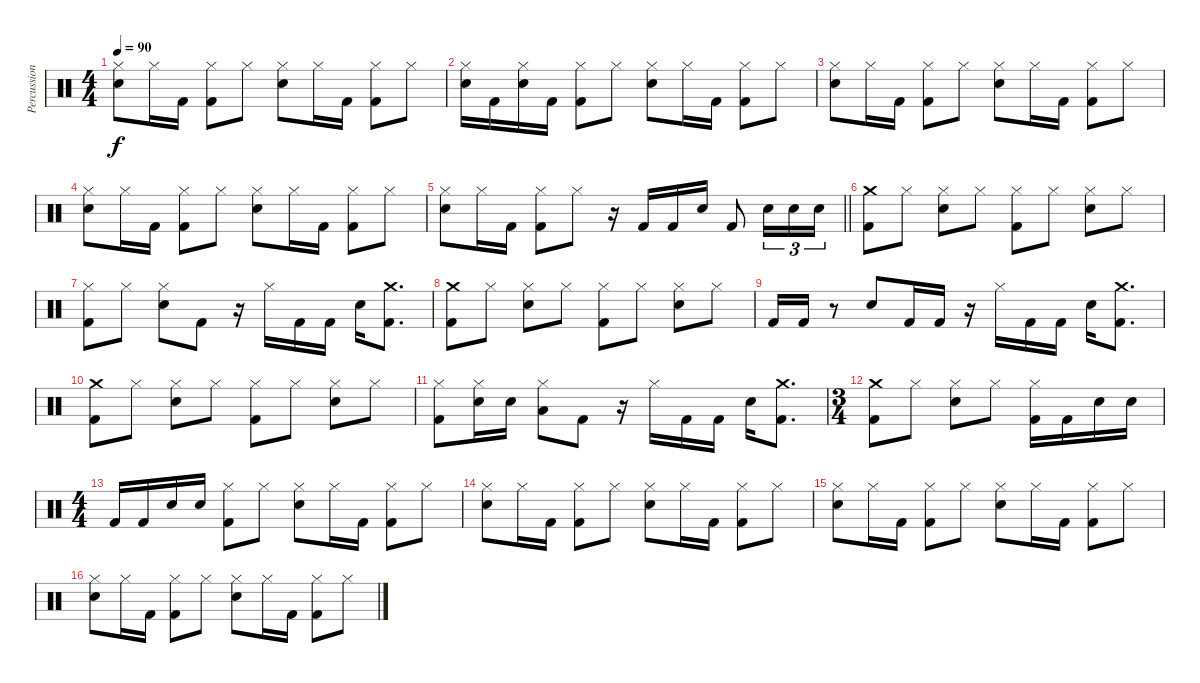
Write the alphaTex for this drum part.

\track ("Percussion" "Percussion") {instrument percussion}
\staff {score}
\articulation defaults
\ts (4 4)
\tempo 90
\clef neutral
\ks c
("Hi-Hat (closed)" "Snare (hit) 2").8{dy f} "Hi-Hat (closed)".16 "Kick (hit) 2".16 ("Hi-Hat (closed)" "Kick (hit) 2").8 "Hi-Hat (closed)".8 ("Hi-Hat (closed)" "Snare (hit) 2").8 "Hi-Hat (closed)".16 "Kick (hit) 2".16 ("Hi-Hat (closed)" "Kick (hit) 2").8 "Hi-Hat (closed)".8 |
("Hi-Hat (closed)" "Snare (hit) 2").16 "Kick (hit) 2".16 ("Hi-Hat (closed)" "Snare (hit) 2").16 "Kick (hit) 2".16 ("Hi-Hat (closed)" "Kick (hit) 2").8 "Hi-Hat (closed)".8 ("Hi-Hat (closed)" "Snare (hit) 2").8 "Hi-Hat (closed)".16 "Kick (hit) 2".16 ("Hi-Hat (closed)" "Kick (hit) 2").8 "Hi-Hat (closed)".8 |
("Hi-Hat (closed)" "Snare (hit) 2").8 "Hi-Hat (closed)".16 "Kick (hit) 2".16 ("Hi-Hat (closed)" "Kick (hit) 2").8 "Hi-Hat (closed)".8 ("Hi-Hat (closed)" "Snare (hit) 2").8 "Hi-Hat (closed)".16 "Kick (hit) 2".16 ("Hi-Hat (closed)" "Kick (hit) 2").8 "Hi-Hat (closed)".8 |
("Hi-Hat (closed)" "Snare (hit) 2").8 "Hi-Hat (closed)".16 "Kick (hit) 2".16 ("Hi-Hat (closed)" "Kick (hit) 2").8 "Hi-Hat (closed)".8 ("Hi-Hat (closed)" "Snare (hit) 2").8 "Hi-Hat (closed)".16 "Kick (hit) 2".16 ("Hi-Hat (closed)" "Kick (hit) 2").8 "Hi-Hat (closed)".8 |
\barLineRight lightlight
("Hi-Hat (closed)" "Snare (hit) 2").8 "Hi-Hat (closed)".16 "Kick (hit) 2".16 ("Hi-Hat (closed)" "Kick (hit) 2").8 "Hi-Hat (closed)".8 r.16 "Kick (hit) 2".16 "Kick (hit) 2".16 "Snare (hit) 2".16 "Kick (hit) 2".8 "Snare (hit) 2".16{tu (3 2)} "Snare (hit) 2".16{tu (3 2)} "Snare (hit) 2".16{tu (3 2)} |
("Crash medium (hit)" "Kick (hit) 2").8 "Hi-Hat (closed)".8 ("Hi-Hat (closed)" "Snare (hit) 2").8 "Hi-Hat (closed)".8 ("Hi-Hat (closed)" "Kick (hit) 2").8 "Hi-Hat (closed)".8 ("Hi-Hat (closed)" "Snare (hit) 2").8 "Hi-Hat (closed)".8 |
("Hi-Hat (closed)" "Kick (hit) 2").8 "Hi-Hat (closed)".8 ("Hi-Hat (closed)" "Snare (hit) 2").8 "Kick (hit) 2".8 r.16 "Hi-Hat (closed)".16 "Kick (hit) 2".16 "Kick (hit) 2".16 "Snare (hit) 2".16 ("Crash medium (hit)" "Kick (hit) 2").8{d} |
("Crash medium (hit)" "Kick (hit) 2").8 "Hi-Hat (closed)".8 ("Hi-Hat (closed)" "Snare (hit) 2").8 "Hi-Hat (closed)".8 ("Hi-Hat (closed)" "Kick (hit) 2").8 "Hi-Hat (closed)".8 ("Hi-Hat (closed)" "Snare (hit) 2").8 "Hi-Hat (closed)".8 |
"Kick (hit) 2".16 "Kick (hit) 2".16 r.8 "Snare (hit) 2".8 "Kick (hit) 2".16 "Kick (hit) 2".16 r.16 "Hi-Hat (closed)".16 "Kick (hit) 2".16 "Kick (hit) 2".16 "Snare (hit) 2".16 ("Crash medium (hit)" "Kick (hit) 2").8{d} |
("Crash medium (hit)" "Kick (hit) 2").8 "Hi-Hat (closed)".8 ("Hi-Hat (closed)" "Snare (hit) 2").8 "Hi-Hat (closed)".8 ("Hi-Hat (closed)" "Kick (hit) 2").8 "Hi-Hat (closed)".8 ("Hi-Hat (closed)" "Snare (hit) 2").8 "Hi-Hat (closed)".8 |
("Hi-Hat (closed)" "Kick (hit) 2").8 ("Hi-Hat (closed)" "Snare (hit) 2").16 "Snare (hit) 2".16 ("Hi-Hat (closed)" "Low Floor Tom (hit)").8 "Kick (hit) 2".8 r.16 "Hi-Hat (closed)".16 "Kick (hit) 2".16 "Kick (hit) 2".16 "Snare (hit) 2".16 ("Crash medium (hit)" "Kick (hit) 2").8{d} |
\ts (3 4)
("Crash medium (hit)" "Kick (hit) 2").8 "Hi-Hat (closed)".8 ("Hi-Hat (closed)" "Snare (hit) 2").8 "Hi-Hat (closed)".8 ("Hi-Hat (closed)" "Kick (hit) 2").16 "Kick (hit) 2".16 "Snare (hit) 2".16 "Snare (hit) 2".16 |
\ts (4 4)
"Kick (hit) 2".16 "Kick (hit) 2".16 "Snare (hit) 2".16 "Snare (hit) 2".16 ("Hi-Hat (closed)" "Kick (hit) 2").8 "Hi-Hat (closed)".8 ("Hi-Hat (closed)" "Snare (hit) 2").8 "Hi-Hat (closed)".16 "Kick (hit) 2".16 ("Hi-Hat (closed)" "Kick (hit) 2").8 "Hi-Hat (closed)".8 |
("Hi-Hat (closed)" "Snare (hit) 2").8 "Hi-Hat (closed)".16 "Kick (hit) 2".16 ("Hi-Hat (closed)" "Kick (hit) 2").8 "Hi-Hat (closed)".8 ("Hi-Hat (closed)" "Snare (hit) 2").8 "Hi-Hat (closed)".16 "Kick (hit) 2".16 ("Hi-Hat (closed)" "Kick (hit) 2").8 "Hi-Hat (closed)".8 |
("Hi-Hat (closed)" "Snare (hit) 2").8 "Hi-Hat (closed)".16 "Kick (hit) 2".16 ("Hi-Hat (closed)" "Kick (hit) 2").8 "Hi-Hat (closed)".8 ("Hi-Hat (closed)" "Snare (hit) 2").8 "Hi-Hat (closed)".16 "Kick (hit) 2".16 ("Hi-Hat (closed)" "Kick (hit) 2").8 "Hi-Hat (closed)".8 |
("Hi-Hat (closed)" "Snare (hit) 2").8 "Hi-Hat (closed)".16 "Kick (hit) 2".16 ("Hi-Hat (closed)" "Kick (hit) 2").8 "Hi-Hat (closed)".8 ("Hi-Hat (closed)" "Snare (hit) 2").8 "Hi-Hat (closed)".16 "Kick (hit) 2".16 ("Hi-Hat (closed)" "Kick (hit) 2").8 "Hi-Hat (closed)".8
